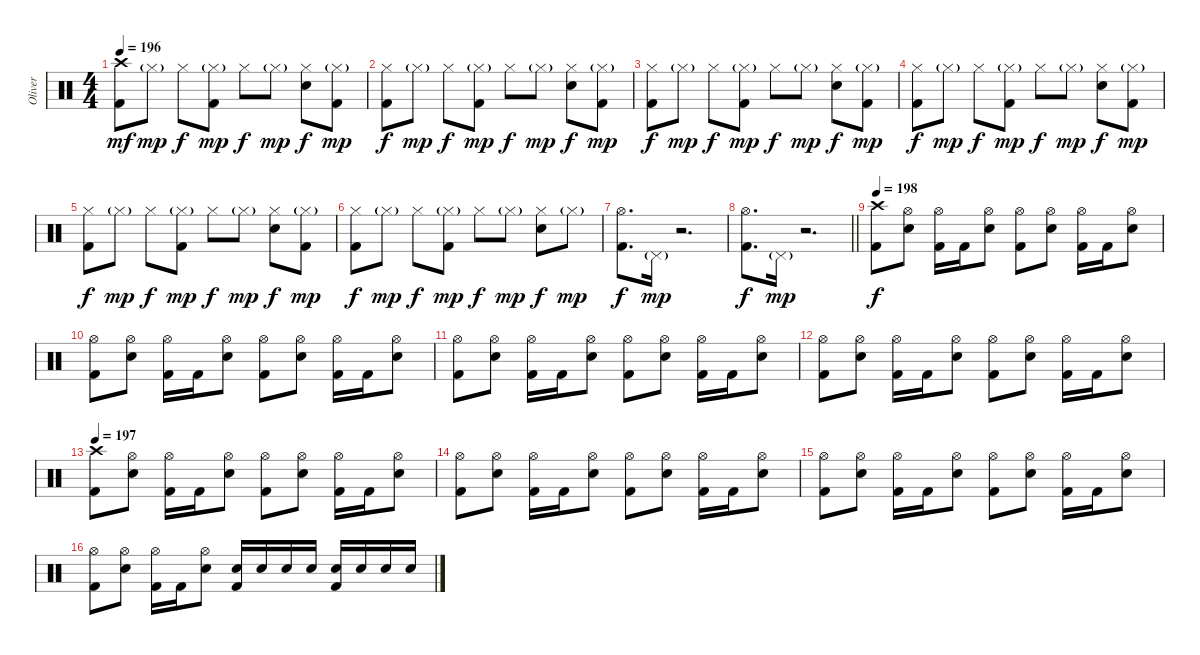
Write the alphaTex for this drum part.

\track ("Oliver" "Oliver") {instrument percussion}
\staff {score}
\articulation defaults
\ts (4 4)
\tempo 196
\clef neutral
\ks c
("Crash high (hit)" "Kick (hit) 2").8{dy mf} "Hi-Hat (closed)"{g}.8{dy mp} "Hi-Hat (closed)".8{dy f} ("Hi-Hat (closed)"{g} "Kick (hit) 2").8{dy mp} "Hi-Hat (closed)".8{dy f} "Hi-Hat (closed)"{g}.8{dy mp} ("Hi-Hat (closed)" "Electric Snare (hit)").8{dy f} ("Hi-Hat (closed)"{g} "Kick (hit) 2").8{dy mp} |
("Hi-Hat (closed)" "Kick (hit) 2").8{dy f} "Hi-Hat (closed)"{g}.8{dy mp} "Hi-Hat (closed)".8{dy f} ("Hi-Hat (closed)"{g} "Kick (hit) 2").8{dy mp} "Hi-Hat (closed)".8{dy f} "Hi-Hat (closed)"{g}.8{dy mp} ("Hi-Hat (closed)" "Electric Snare (hit)").8{dy f} ("Hi-Hat (closed)"{g} "Kick (hit) 2").8{dy mp} |
("Hi-Hat (closed)" "Kick (hit) 2").8{dy f} "Hi-Hat (closed)"{g}.8{dy mp} "Hi-Hat (closed)".8{dy f} ("Hi-Hat (closed)"{g} "Kick (hit) 2").8{dy mp} "Hi-Hat (closed)".8{dy f} "Hi-Hat (closed)"{g}.8{dy mp} ("Hi-Hat (closed)" "Electric Snare (hit)").8{dy f} ("Hi-Hat (closed)"{g} "Kick (hit) 2").8{dy mp} |
("Hi-Hat (closed)" "Kick (hit) 2").8{dy f} "Hi-Hat (closed)"{g}.8{dy mp} "Hi-Hat (closed)".8{dy f} ("Hi-Hat (closed)"{g} "Kick (hit) 2").8{dy mp} "Hi-Hat (closed)".8{dy f} "Hi-Hat (closed)"{g}.8{dy mp} ("Hi-Hat (closed)" "Electric Snare (hit)").8{dy f} ("Hi-Hat (closed)"{g} "Kick (hit) 2").8{dy mp} |
("Hi-Hat (closed)" "Kick (hit) 2").8{dy f} "Hi-Hat (closed)"{g}.8{dy mp} "Hi-Hat (closed)".8{dy f} ("Hi-Hat (closed)"{g} "Kick (hit) 2").8{dy mp} "Hi-Hat (closed)".8{dy f} "Hi-Hat (closed)"{g}.8{dy mp} ("Hi-Hat (closed)" "Electric Snare (hit)").8{dy f} ("Hi-Hat (closed)"{g} "Kick (hit) 2").8{dy mp} |
("Hi-Hat (closed)" "Kick (hit) 2").8{dy f} "Hi-Hat (closed)"{g}.8{dy mp} "Hi-Hat (closed)".8{dy f} ("Hi-Hat (closed)"{g} "Kick (hit) 2").8{dy mp} "Hi-Hat (closed)".8{dy f} "Hi-Hat (closed)"{g}.8{dy mp} ("Hi-Hat (closed)" "Electric Snare (hit)").8{dy f} "Hi-Hat (closed)"{g}.8{dy mp} |
("Hi-Hat (open)" "Kick (hit) 2").8{d dy f} "Pedal Hi-Hat (hit)"{g}.16{dy mp} r.2{d} |
\barLineRight lightlight
("Hi-Hat (open)" "Kick (hit) 2").8{d dy f} "Pedal Hi-Hat (hit)"{g}.16{dy mp} r.2{d} |
\section ("" "")
\tempo 198
("Crash high (hit)" "Kick (hit) 2").8{dy f} ("Hi-Hat (open)" "Electric Snare (hit)").8 ("Hi-Hat (open)" "Kick (hit) 2").16 "Kick (hit) 2".16 ("Hi-Hat (open)" "Electric Snare (hit)").8 ("Hi-Hat (open)" "Kick (hit) 2").8 ("Hi-Hat (open)" "Electric Snare (hit)").8 ("Hi-Hat (open)" "Kick (hit) 2").16 "Kick (hit) 2".16 ("Hi-Hat (open)" "Electric Snare (hit)").8 |
("Hi-Hat (open)" "Kick (hit) 2").8 ("Hi-Hat (open)" "Electric Snare (hit)").8 ("Hi-Hat (open)" "Kick (hit) 2").16 "Kick (hit) 2".16 ("Hi-Hat (open)" "Electric Snare (hit)").8 ("Hi-Hat (open)" "Kick (hit) 2").8 ("Hi-Hat (open)" "Electric Snare (hit)").8 ("Hi-Hat (open)" "Kick (hit) 2").16 "Kick (hit) 2".16 ("Hi-Hat (open)" "Electric Snare (hit)").8 |
("Hi-Hat (open)" "Kick (hit) 2").8 ("Hi-Hat (open)" "Electric Snare (hit)").8 ("Hi-Hat (open)" "Kick (hit) 2").16 "Kick (hit) 2".16 ("Hi-Hat (open)" "Electric Snare (hit)").8 ("Hi-Hat (open)" "Kick (hit) 2").8 ("Hi-Hat (open)" "Electric Snare (hit)").8 ("Hi-Hat (open)" "Kick (hit) 2").16 "Kick (hit) 2".16 ("Hi-Hat (open)" "Electric Snare (hit)").8 |
("Hi-Hat (open)" "Kick (hit) 2").8 ("Hi-Hat (open)" "Electric Snare (hit)").8 ("Hi-Hat (open)" "Kick (hit) 2").16 "Kick (hit) 2".16 ("Hi-Hat (open)" "Electric Snare (hit)").8 ("Hi-Hat (open)" "Kick (hit) 2").8 ("Hi-Hat (open)" "Electric Snare (hit)").8 ("Hi-Hat (open)" "Kick (hit) 2").16 "Kick (hit) 2".16 ("Hi-Hat (open)" "Electric Snare (hit)").8 |
\tempo 197
("Crash high (hit)" "Kick (hit) 2").8 ("Hi-Hat (open)" "Electric Snare (hit)").8 ("Hi-Hat (open)" "Kick (hit) 2").16 "Kick (hit) 2".16 ("Hi-Hat (open)" "Electric Snare (hit)").8 ("Hi-Hat (open)" "Kick (hit) 2").8 ("Hi-Hat (open)" "Electric Snare (hit)").8 ("Hi-Hat (open)" "Kick (hit) 2").16 "Kick (hit) 2".16 ("Hi-Hat (open)" "Electric Snare (hit)").8 |
("Hi-Hat (open)" "Kick (hit) 2").8 ("Hi-Hat (open)" "Electric Snare (hit)").8 ("Hi-Hat (open)" "Kick (hit) 2").16 "Kick (hit) 2".16 ("Hi-Hat (open)" "Electric Snare (hit)").8 ("Hi-Hat (open)" "Kick (hit) 2").8 ("Hi-Hat (open)" "Electric Snare (hit)").8 ("Hi-Hat (open)" "Kick (hit) 2").16 "Kick (hit) 2".16 ("Hi-Hat (open)" "Electric Snare (hit)").8 |
("Hi-Hat (open)" "Kick (hit) 2").8 ("Hi-Hat (open)" "Electric Snare (hit)").8 ("Hi-Hat (open)" "Kick (hit) 2").16 "Kick (hit) 2".16 ("Hi-Hat (open)" "Electric Snare (hit)").8 ("Hi-Hat (open)" "Kick (hit) 2").8 ("Hi-Hat (open)" "Electric Snare (hit)").8 ("Hi-Hat (open)" "Kick (hit) 2").16 "Kick (hit) 2".16 ("Hi-Hat (open)" "Electric Snare (hit)").8 |
("Hi-Hat (open)" "Kick (hit) 2").8 ("Hi-Hat (open)" "Electric Snare (hit)").8 ("Hi-Hat (open)" "Kick (hit) 2").16 "Kick (hit) 2".16 ("Hi-Hat (open)" "Electric Snare (hit)").8 ("Electric Snare (hit)" "Kick (hit) 2").16 "Electric Snare (hit)".16 "Electric Snare (hit)".16 "Electric Snare (hit)".16 ("Electric Snare (hit)" "Kick (hit) 2").16 "Electric Snare (hit)".16 "Electric Snare (hit)".16 "Electric Snare (hit)".16
